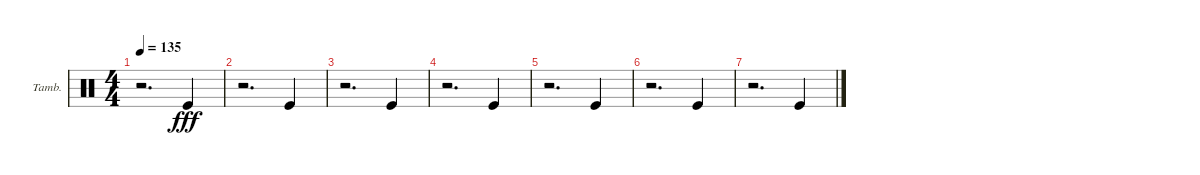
\defaultSystemsLayout 4
\bracketExtendMode groupsimilarinstruments
\firstSystemTrackNameOrientation horizontal
\otherSystemsTrackNameOrientation horizontal
\track ("Tambourine" "Tamb.") {instrument percussion}
\staff {score}
\articulation defaults
\ts (4 4)
\tempo 135
\clef neutral
\scale
0.333333
\ks c
r.2{d dy fff} "Kick (hit)".4 |
\scale
0.333333 r.2{d} "Kick (hit)".4 |
\scale
0.333333 r.2{d} "Kick (hit)".4 |
\scale
0.333333 r.2{d} "Kick (hit)".4 |
\scale
0.333333 r.2{d} "Kick (hit)".4 |
\scale
0.333333 r.2{d} "Kick (hit)".4 |
\scale
0.333333 r.2{d} "Kick (hit)".4 |
\scale
0.333333 |
\scale
0.333333 |
\scale
0.333333 |
\scale
0.333333 |
\scale
0.333333 |
\scale
0.333333
